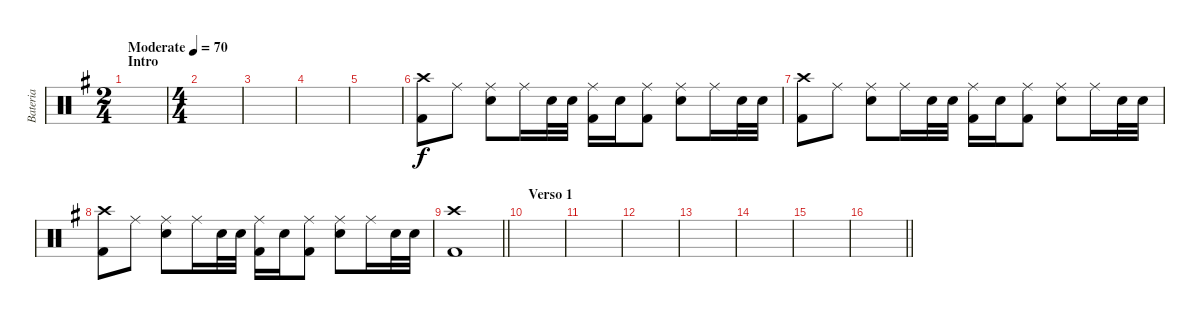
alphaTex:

\track ("Bateria" "Bateria") {instrument percussion}
\staff {score}
\articulation defaults
\ts (2 4)
\section ("" "Intro")
\tempo (70 "Moderate")
\clef neutral
\ks g
|
\ts (4 4)
|
|
|
|
("Kick (hit) 2" "Crash high (hit)").8 "Ride (middle)".8 ("Electric Snare (hit)" "Ride (middle)").8 "Ride (middle)".16 "Electric Snare (hit)".32 "Electric Snare (hit)".32 ("Kick (hit) 2" "Ride (middle)").16 "Electric Snare (hit)".16 ("Kick (hit) 2" "Ride (middle)").8 ("Electric Snare (hit)" "Ride (middle)").8 "Ride (middle)".16 "Electric Snare (hit)".32 "Electric Snare (hit)".32 |
("Kick (hit) 2" "Crash high (hit)").8 "Ride (middle)".8 ("Electric Snare (hit)" "Ride (middle)").8 "Ride (middle)".16 "Electric Snare (hit)".32 "Electric Snare (hit)".32 ("Kick (hit) 2" "Ride (middle)").16 "Electric Snare (hit)".16 ("Kick (hit) 2" "Ride (middle)").8 ("Electric Snare (hit)" "Ride (middle)").8 "Ride (middle)".16 "Electric Snare (hit)".32 "Electric Snare (hit)".32 |
("Kick (hit) 2" "Crash high (hit)").8 "Ride (middle)".8 ("Electric Snare (hit)" "Ride (middle)").8 "Ride (middle)".16 "Electric Snare (hit)".32 "Electric Snare (hit)".32 ("Kick (hit) 2" "Ride (middle)").16 "Electric Snare (hit)".16 ("Kick (hit) 2" "Ride (middle)").8 ("Electric Snare (hit)" "Ride (middle)").8 "Ride (middle)".16 "Electric Snare (hit)".32 "Electric Snare (hit)".32 |
\barLineRight lightlight
("Kick (hit) 2" "Crash high (hit)").1 |
\section ("" "Verso 1")
|
|
|
|
|
|
\barLineRight lightlight
